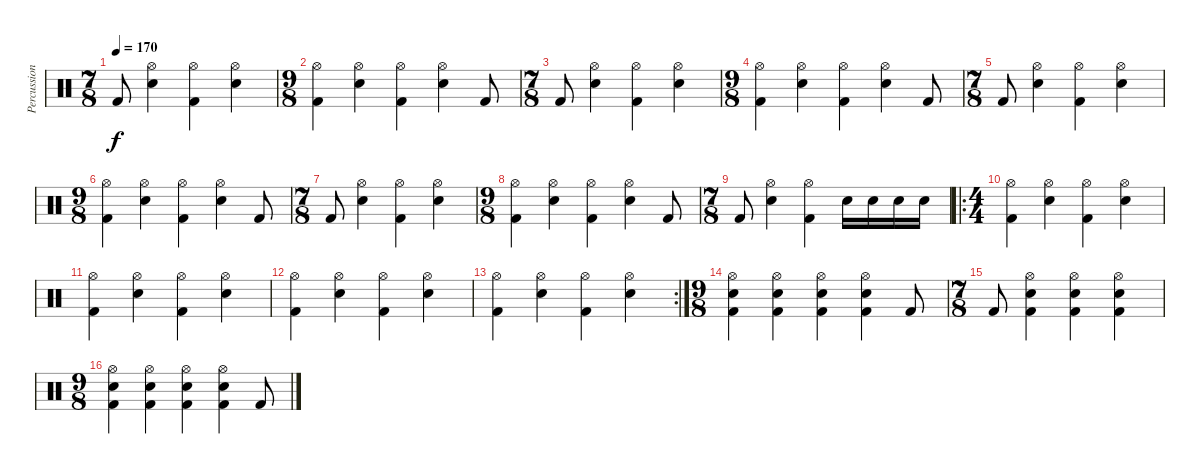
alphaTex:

\track ("Percussion" "Percussion") {instrument percussion}
\staff {score}
\articulation defaults
\ts (7 8)
\tempo 170
\clef neutral
\ks c "Kick (hit) 2".8{dy f}
("Snare (hit) 2" "Hi-Hat (open)").4 ("Kick (hit) 2" "Hi-Hat (open)").4 ("Snare (hit) 2" "Hi-Hat (open)").4 |
\ts (9 8)
("Kick (hit) 2" "Hi-Hat (open)").4 ("Snare (hit) 2" "Hi-Hat (open)").4 ("Kick (hit) 2" "Hi-Hat (open)").4 ("Snare (hit) 2" "Hi-Hat (open)").4 "Kick (hit) 2".8 |
\ts (7 8)
"Kick (hit) 2".8 ("Snare (hit) 2" "Hi-Hat (open)").4 ("Kick (hit) 2" "Hi-Hat (open)").4 ("Snare (hit) 2" "Hi-Hat (open)").4 |
\ts (9 8)
("Kick (hit) 2" "Hi-Hat (open)").4 ("Snare (hit) 2" "Hi-Hat (open)").4 ("Kick (hit) 2" "Hi-Hat (open)").4 ("Snare (hit) 2" "Hi-Hat (open)").4 "Kick (hit) 2".8 |
\ts (7 8)
"Kick (hit) 2".8 ("Snare (hit) 2" "Hi-Hat (open)").4 ("Kick (hit) 2" "Hi-Hat (open)").4 ("Snare (hit) 2" "Hi-Hat (open)").4 |
\ts (9 8)
("Kick (hit) 2" "Hi-Hat (open)").4 ("Snare (hit) 2" "Hi-Hat (open)").4 ("Kick (hit) 2" "Hi-Hat (open)").4 ("Snare (hit) 2" "Hi-Hat (open)").4 "Kick (hit) 2".8 |
\ts (7 8)
"Kick (hit) 2".8 ("Snare (hit) 2" "Hi-Hat (open)").4 ("Kick (hit) 2" "Hi-Hat (open)").4 ("Snare (hit) 2" "Hi-Hat (open)").4 |
\ts (9 8)
("Kick (hit) 2" "Hi-Hat (open)").4 ("Snare (hit) 2" "Hi-Hat (open)").4 ("Kick (hit) 2" "Hi-Hat (open)").4 ("Snare (hit) 2" "Hi-Hat (open)").4 "Kick (hit) 2".8 |
\ts (7 8)
"Kick (hit) 2".8 ("Snare (hit) 2" "Hi-Hat (open)").4 ("Kick (hit) 2" "Hi-Hat (open)").4 "Snare (hit) 2".16 "Snare (hit) 2".16 "Snare (hit) 2".16 "Snare (hit) 2".16 |
\ro
\ts (4 4)
("Kick (hit) 2" "Hi-Hat (open)").4 ("Snare (hit) 2" "Hi-Hat (open)").4 ("Kick (hit) 2" "Hi-Hat (open)").4 ("Snare (hit) 2" "Hi-Hat (open)").4 |
("Kick (hit) 2" "Hi-Hat (open)").4 ("Snare (hit) 2" "Hi-Hat (open)").4 ("Kick (hit) 2" "Hi-Hat (open)").4 ("Snare (hit) 2" "Hi-Hat (open)").4 |
("Kick (hit) 2" "Hi-Hat (open)").4 ("Snare (hit) 2" "Hi-Hat (open)").4 ("Kick (hit) 2" "Hi-Hat (open)").4 ("Snare (hit) 2" "Hi-Hat (open)").4 |
\rc 2
("Kick (hit) 2" "Hi-Hat (open)").4 ("Snare (hit) 2" "Hi-Hat (open)").4 ("Kick (hit) 2" "Hi-Hat (open)").4 ("Snare (hit) 2" "Hi-Hat (open)").4 |
\ts (9 8)
("Kick (hit) 2" "Snare (hit) 2" "Hi-Hat (open)").4 ("Kick (hit) 2" "Snare (hit) 2" "Hi-Hat (open)").4 ("Kick (hit) 2" "Snare (hit) 2" "Hi-Hat (open)").4 ("Kick (hit) 2" "Snare (hit) 2" "Hi-Hat (open)").4 "Kick (hit) 2".8 |
\ts (7 8)
"Kick (hit) 2".8 ("Kick (hit) 2" "Snare (hit) 2" "Hi-Hat (open)").4 ("Kick (hit) 2" "Snare (hit) 2" "Hi-Hat (open)").4 ("Kick (hit) 2" "Snare (hit) 2" "Hi-Hat (open)").4 |
\ts (9 8)
("Kick (hit) 2" "Snare (hit) 2" "Hi-Hat (open)").4 ("Kick (hit) 2" "Snare (hit) 2" "Hi-Hat (open)").4 ("Kick (hit) 2" "Snare (hit) 2" "Hi-Hat (open)").4 ("Kick (hit) 2" "Snare (hit) 2" "Hi-Hat (open)").4 "Kick (hit) 2".8
